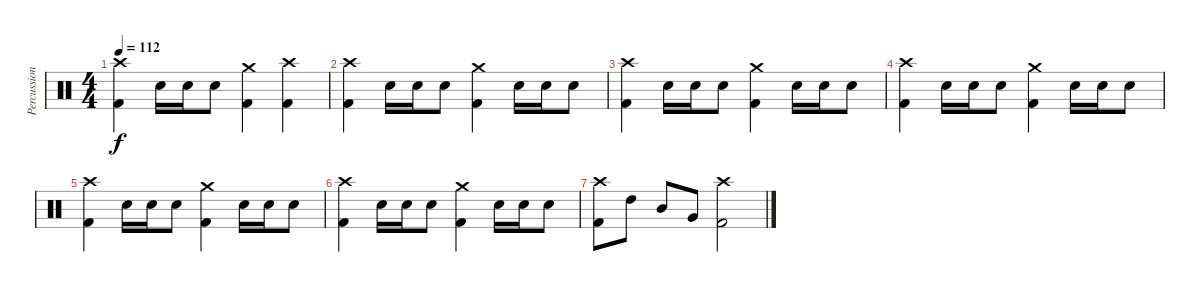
\track ("Percussion" "Percussion") {instrument percussion}
\staff {score}
\articulation defaults
\ts (4 4)
\tempo 112
\clef neutral
\ks c
("Crash high (hit)" "Kick (hit) 2").4{dy f} "Snare (hit) 2".16 "Snare (hit) 2".16 "Snare (hit) 2".8 ("Crash medium (hit)" "Kick (hit) 2").4 ("Crash high (hit)" "Kick (hit) 2").4 |
("Crash high (hit)" "Kick (hit) 2").4 "Snare (hit) 2".16 "Snare (hit) 2".16 "Snare (hit) 2".8 ("Crash medium (hit)" "Kick (hit) 2").4 "Snare (hit) 2".16 "Snare (hit) 2".16 "Snare (hit) 2".8 |
("Crash high (hit)" "Kick (hit) 2").4 "Snare (hit) 2".16 "Snare (hit) 2".16 "Snare (hit) 2".8 ("Crash medium (hit)" "Kick (hit) 2").4 "Snare (hit) 2".16 "Snare (hit) 2".16 "Snare (hit) 2".8 |
("Crash high (hit)" "Kick (hit) 2").4 "Snare (hit) 2".16 "Snare (hit) 2".16 "Snare (hit) 2".8 ("Crash medium (hit)" "Kick (hit) 2").4 "Snare (hit) 2".16 "Snare (hit) 2".16 "Snare (hit) 2".8 |
("Crash high (hit)" "Kick (hit) 2").4 "Snare (hit) 2".16 "Snare (hit) 2".16 "Snare (hit) 2".8 ("Crash medium (hit)" "Kick (hit) 2").4 "Snare (hit) 2".16 "Snare (hit) 2".16 "Snare (hit) 2".8 |
("Crash high (hit)" "Kick (hit) 2").4 "Snare (hit) 2".16 "Snare (hit) 2".16 "Snare (hit) 2".8 ("Crash medium (hit)" "Kick (hit) 2").4 "Snare (hit) 2".16 "Snare (hit) 2".16 "Snare (hit) 2".8 |
("Crash high (hit)" "Kick (hit) 2").8 "High Tom (hit)".8 "Mid Tom (hit)".8 "Very Low Tom (hit)".8 ("Crash high (hit)" "Kick (hit) 2").2
